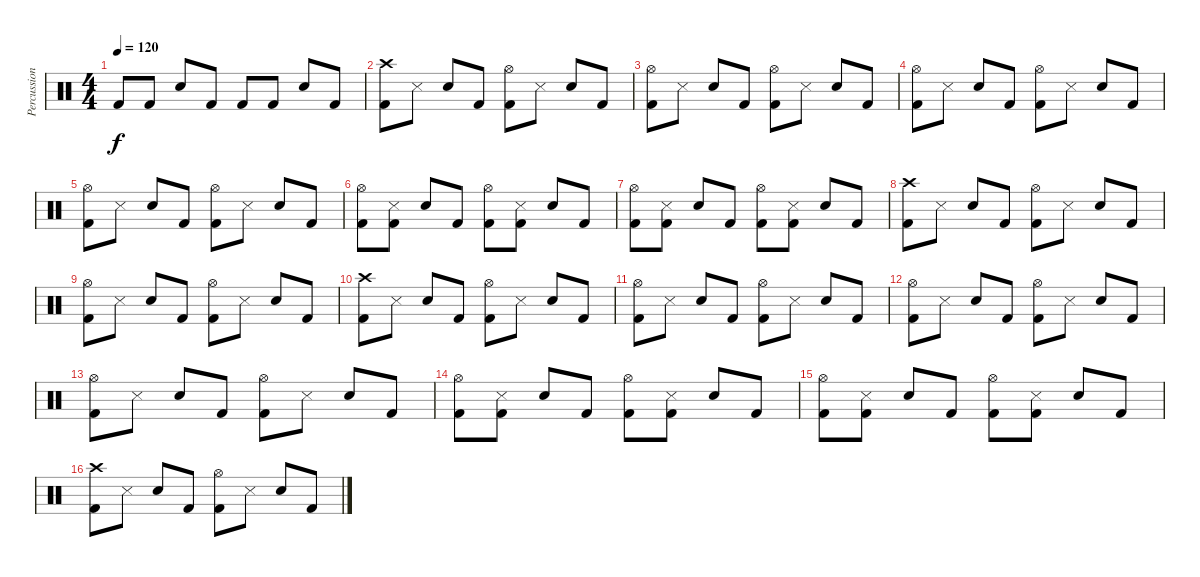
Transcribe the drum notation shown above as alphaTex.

\track ("Percussion" "Percussion") {instrument percussion}
\staff {score}
\articulation defaults
\ts (4 4)
\tempo 120
\clef neutral
\ks c "Kick (hit) 2".8{dy f} "Kick (hit) 2".8 "Electric Snare (hit)".8 "Kick (hit) 2".8 "Kick (hit) 2".8 "Kick (hit) 2".8 "Electric Snare (hit)".8 "Kick (hit) 2".8
|
("Crash high (hit)" "Kick (hit) 2").8 "Snare (side stick) 3".8 "Electric Snare (hit)".8 "Kick (hit) 2".8 ("Hi-Hat (open)" "Kick (hit) 2").8 "Snare (side stick) 3".8 "Electric Snare (hit)".8 "Kick (hit) 2".8 |
("Hi-Hat (open)" "Kick (hit) 2").8 "Snare (side stick) 3".8 "Electric Snare (hit)".8 "Kick (hit) 2".8 ("Hi-Hat (open)" "Kick (hit) 2").8 "Snare (side stick) 3".8 "Electric Snare (hit)".8 "Kick (hit) 2".8 |
("Hi-Hat (open)" "Kick (hit) 2").8 "Snare (side stick) 3".8 "Electric Snare (hit)".8 "Kick (hit) 2".8 ("Hi-Hat (open)" "Kick (hit) 2").8 "Snare (side stick) 3".8 "Electric Snare (hit)".8 "Kick (hit) 2".8 |
("Hi-Hat (open)" "Kick (hit) 2").8 "Snare (side stick) 3".8 "Electric Snare (hit)".8 "Kick (hit) 2".8 ("Hi-Hat (open)" "Kick (hit) 2").8 "Snare (side stick) 3".8 "Electric Snare (hit)".8 "Kick (hit) 2".8 |
("Hi-Hat (open)" "Kick (hit) 2").8 ("Kick (hit) 2" "Snare (side stick) 3").8 "Electric Snare (hit)".8 "Kick (hit) 2".8 ("Hi-Hat (open)" "Kick (hit) 2").8 ("Kick (hit) 2" "Snare (side stick) 3").8 "Electric Snare (hit)".8 "Kick (hit) 2".8 |
("Hi-Hat (open)" "Kick (hit) 2").8 ("Kick (hit) 2" "Snare (side stick) 3").8 "Electric Snare (hit)".8 "Kick (hit) 2".8 ("Hi-Hat (open)" "Kick (hit) 2").8 ("Kick (hit) 2" "Snare (side stick) 3").8 "Electric Snare (hit)".8 "Kick (hit) 2".8 |
("Crash high (hit)" "Kick (hit) 2").8 "Snare (side stick) 3".8 "Electric Snare (hit)".8 "Kick (hit) 2".8 ("Hi-Hat (open)" "Kick (hit) 2").8 "Snare (side stick) 3".8 "Electric Snare (hit)".8 "Kick (hit) 2".8 |
("Hi-Hat (open)" "Kick (hit) 2").8 "Snare (side stick) 3".8 "Electric Snare (hit)".8 "Kick (hit) 2".8 ("Hi-Hat (open)" "Kick (hit) 2").8 "Snare (side stick) 3".8 "Electric Snare (hit)".8 "Kick (hit) 2".8 |
("Crash high (hit)" "Kick (hit) 2").8 "Snare (side stick) 3".8 "Electric Snare (hit)".8 "Kick (hit) 2".8 ("Hi-Hat (open)" "Kick (hit) 2").8 "Snare (side stick) 3".8 "Electric Snare (hit)".8 "Kick (hit) 2".8 |
("Hi-Hat (open)" "Kick (hit) 2").8 "Snare (side stick) 3".8 "Electric Snare (hit)".8 "Kick (hit) 2".8 ("Hi-Hat (open)" "Kick (hit) 2").8 "Snare (side stick) 3".8 "Electric Snare (hit)".8 "Kick (hit) 2".8 |
("Hi-Hat (open)" "Kick (hit) 2").8 "Snare (side stick) 3".8 "Electric Snare (hit)".8 "Kick (hit) 2".8 ("Hi-Hat (open)" "Kick (hit) 2").8 "Snare (side stick) 3".8 "Electric Snare (hit)".8 "Kick (hit) 2".8 |
("Hi-Hat (open)" "Kick (hit) 2").8 "Snare (side stick) 3".8 "Electric Snare (hit)".8 "Kick (hit) 2".8 ("Hi-Hat (open)" "Kick (hit) 2").8 "Snare (side stick) 3".8 "Electric Snare (hit)".8 "Kick (hit) 2".8 |
("Hi-Hat (open)" "Kick (hit) 2").8 ("Kick (hit) 2" "Snare (side stick) 3").8 "Electric Snare (hit)".8 "Kick (hit) 2".8 ("Hi-Hat (open)" "Kick (hit) 2").8 ("Kick (hit) 2" "Snare (side stick) 3").8 "Electric Snare (hit)".8 "Kick (hit) 2".8 |
("Hi-Hat (open)" "Kick (hit) 2").8 ("Kick (hit) 2" "Snare (side stick) 3").8 "Electric Snare (hit)".8 "Kick (hit) 2".8 ("Hi-Hat (open)" "Kick (hit) 2").8 ("Kick (hit) 2" "Snare (side stick) 3").8 "Electric Snare (hit)".8 "Kick (hit) 2".8 |
("Crash high (hit)" "Kick (hit) 2").8 "Snare (side stick) 3".8 "Electric Snare (hit)".8 "Kick (hit) 2".8 ("Hi-Hat (open)" "Kick (hit) 2").8 "Snare (side stick) 3".8 "Electric Snare (hit)".8 "Kick (hit) 2".8
